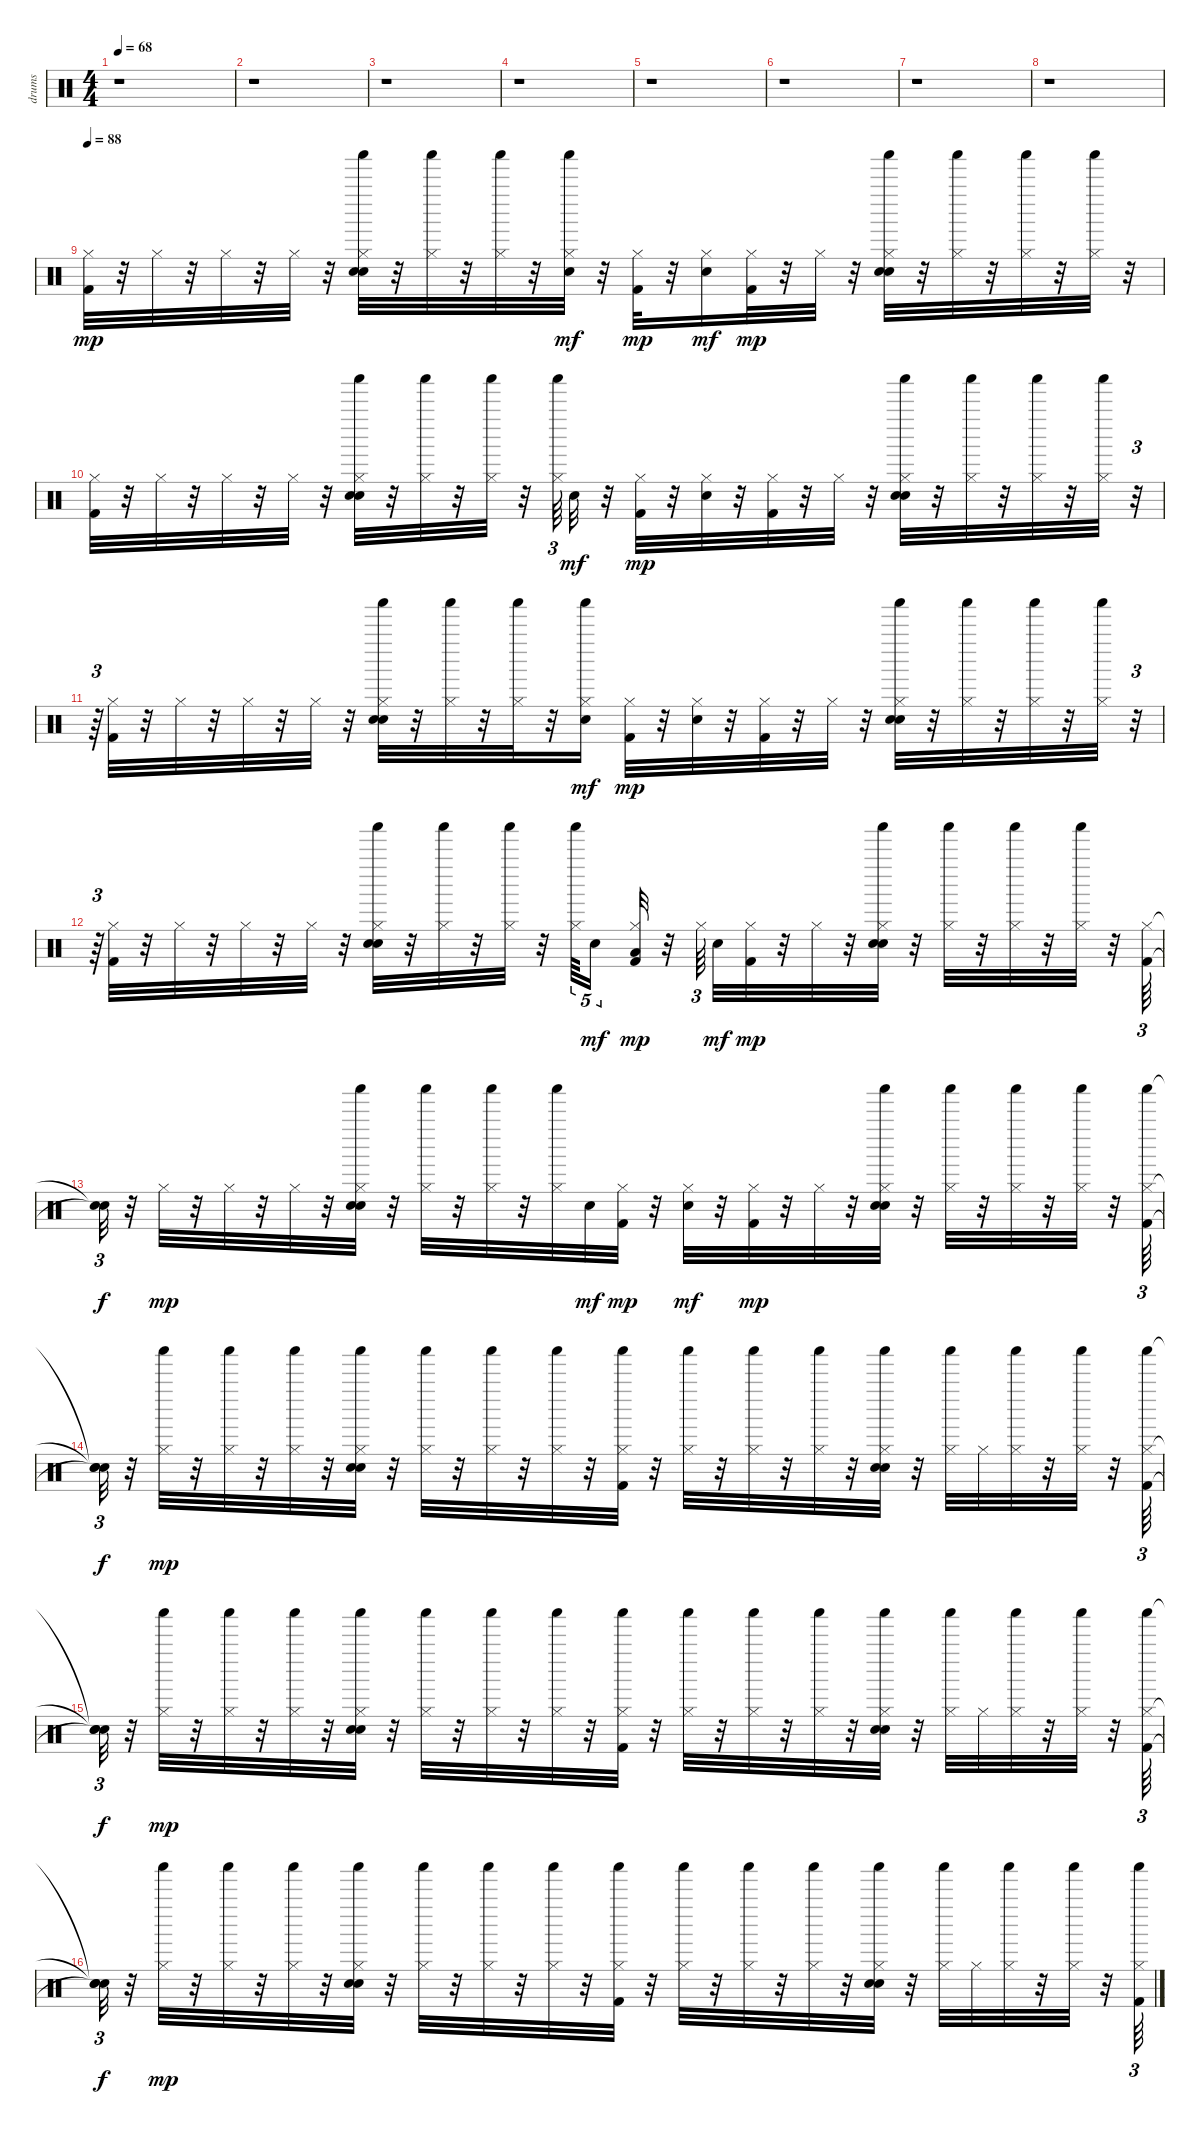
\track ("drums" "drums") {instrument percussion}
\staff {score}
\articulation defaults
\ts (4 4)
\tempo 68
\clef neutral
\ks c
r.1{dy mp} |
r.1 |
r.1 |
r.1 |
r.1 |
r.1 |
r.1 |
r.1 |
\tempo 88
("Kick (hit) 2" "Hi-Hat (closed)").32 r.32 "Hi-Hat (closed)".32 r.32 "Hi-Hat (closed)".32 r.32 "Hi-Hat (closed)".32 r.32 ("Shaker (hit)" "Hand Clap (hit)" "Snare (hit) 2" "Hi-Hat (closed)").32 r.32 ("Shaker (hit)" "Hi-Hat (closed)").32 r.32 ("Shaker (hit)" "Hi-Hat (closed)").32 r.32 ("Shaker (hit)" "Hi-Hat (closed)" "Electric Snare (hit)").32{dy mf} r.32 ("Kick (hit) 2" "Hi-Hat (closed)").32{dy mp} r.32 ("Hi-Hat (closed)" "Electric Snare (hit)").16{dy mf} ("Kick (hit) 2" "Hi-Hat (closed)").32{dy mp} r.32 "Hi-Hat (closed)".32 r.32 ("Shaker (hit)" "Hand Clap (hit)" "Snare (hit) 2" "Hi-Hat (closed)").32 r.32 ("Shaker (hit)" "Hi-Hat (closed)").32 r.32 ("Shaker (hit)" "Hi-Hat (closed)").32 r.32 ("Shaker (hit)" "Hi-Hat (closed)").32 r.32 |
("Kick (hit) 2" "Hi-Hat (closed)").32 r.32 "Hi-Hat (closed)".32 r.32 "Hi-Hat (closed)".32 r.32 "Hi-Hat (closed)".32 r.32 ("Shaker (hit)" "Hand Clap (hit)" "Snare (hit) 2" "Hi-Hat (closed)").32 r.32 ("Shaker (hit)" "Hi-Hat (closed)").32 r.32 ("Shaker (hit)" "Hi-Hat (closed)").32 r.32 ("Shaker (hit)" "Hi-Hat (closed)").64{tu (3 2)} "Electric Snare (hit)".32{dy mf} r.32 ("Kick (hit) 2" "Hi-Hat (closed)").32{dy mp} r.32 ("Electric Snare (hit)" "Hi-Hat (closed)").32 r.32 ("Kick (hit) 2" "Hi-Hat (closed)").32 r.32 "Hi-Hat (closed)".32 r.32 ("Shaker (hit)" "Hand Clap (hit)" "Snare (hit) 2" "Hi-Hat (closed)").32 r.32 ("Shaker (hit)" "Hi-Hat (closed)").32 r.32 ("Shaker (hit)" "Hi-Hat (closed)").32 r.32 ("Shaker (hit)" "Hi-Hat (closed)").32 r.32{tu (3 2)} |
r.64{tu (3 2)} ("Kick (hit) 2" "Hi-Hat (closed)").32 r.32 "Hi-Hat (closed)".32 r.32 "Hi-Hat (closed)".32 r.32 "Hi-Hat (closed)".32 r.32 ("Shaker (hit)" "Hand Clap (hit)" "Snare (hit) 2" "Hi-Hat (closed)").32 r.32 ("Shaker (hit)" "Hi-Hat (closed)").32 r.32 ("Shaker (hit)" "Hi-Hat (closed)").32 r.32 ("Shaker (hit)" "Hi-Hat (closed)" "Electric Snare (hit)").16{dy mf} ("Kick (hit) 2" "Hi-Hat (closed)").32{dy mp} r.32 ("Electric Snare (hit)" "Hi-Hat (closed)").32 r.32 ("Kick (hit) 2" "Hi-Hat (closed)").32 r.32 "Hi-Hat (closed)".32 r.32 ("Shaker (hit)" "Hand Clap (hit)" "Snare (hit) 2" "Hi-Hat (closed)").32 r.32 ("Shaker (hit)" "Hi-Hat (closed)").32 r.32 ("Shaker (hit)" "Hi-Hat (closed)").32 r.32 ("Shaker (hit)" "Hi-Hat (closed)").32 r.32{tu (3 2)} |
r.64{tu (3 2)} ("Kick (hit) 2" "Hi-Hat (closed)").32 r.32 "Hi-Hat (closed)".32 r.32 "Hi-Hat (closed)".32 r.32 "Hi-Hat (closed)".32 r.32 ("Shaker (hit)" "Hand Clap (hit)" "Snare (hit) 2" "Hi-Hat (closed)").32 r.32 ("Shaker (hit)" "Hi-Hat (closed)").32 r.32 ("Shaker (hit)" "Hi-Hat (closed)").32 r.32 ("Shaker (hit)" "Hi-Hat (closed)").64{tu (5 4)} "Electric Snare (hit)".16{tu (5 4) dy mf} ("Kick (hit) 2" "Hi-Hat (closed)" "Low Floor Tom (hit)").32{dy mp} r.32 "Hi-Hat (closed)".64{tu (3 2)} "Electric Snare (hit)".32{dy mf} ("Kick (hit) 2" "Hi-Hat (closed)").32{dy mp} r.32 "Hi-Hat (closed)".32 r.32 ("Shaker (hit)" "Hand Clap (hit)" "Snare (hit) 2" "Hi-Hat (closed)").32 r.32 ("Shaker (hit)" "Hi-Hat (closed)").32 r.32 ("Shaker (hit)" "Hi-Hat (closed)").32 r.32 ("Shaker (hit)" "Hi-Hat (closed)").32 r.32 ("Kick (hit) 2" "Hi-Hat (closed)").64{tu (3 2)} |
("Snare (hit)"{t} "Snare (hit)"{t}).32{tu (3 2) dy f} r.32 "Hi-Hat (closed)".32{dy mp} r.32 "Hi-Hat (closed)".32 r.32 "Hi-Hat (closed)".32 r.32 ("Shaker (hit)" "Hand Clap (hit)" "Snare (hit) 2" "Hi-Hat (closed)").32 r.32 ("Shaker (hit)" "Hi-Hat (closed)").32 r.32 ("Shaker (hit)" "Hi-Hat (closed)").32 r.32 ("Shaker (hit)" "Hi-Hat (closed)").32 "Electric Snare (hit)".32{dy mf} ("Kick (hit) 2" "Hi-Hat (closed)").32{dy mp} r.32 ("Hi-Hat (closed)" "Electric Snare (hit)").32{dy mf} r.32 ("Kick (hit) 2" "Hi-Hat (closed)").32{dy mp} r.32 "Hi-Hat (closed)".32 r.32 ("Shaker (hit)" "Hand Clap (hit)" "Snare (hit) 2" "Hi-Hat (closed)").32 r.32 ("Shaker (hit)" "Hi-Hat (closed)").32 r.32 ("Shaker (hit)" "Hi-Hat (closed)").32 r.32 ("Shaker (hit)" "Hi-Hat (closed)").32 r.32 ("Shaker (hit)" "Kick (hit) 2" "Hi-Hat (closed)").64{tu (3 2)} |
("Snare (hit)"{t} "Snare (hit)"{t} "Snare (hit)"{t}).32{tu (3 2) dy f} r.32 ("Shaker (hit)" "Hi-Hat (closed)").32{dy mp} r.32 ("Shaker (hit)" "Hi-Hat (closed)").32 r.32 ("Shaker (hit)" "Hi-Hat (closed)").32 r.32 ("Shaker (hit)" "Hand Clap (hit)" "Snare (hit) 2" "Hi-Hat (closed)").32 r.32 ("Shaker (hit)" "Hi-Hat (closed)").32 r.32 ("Shaker (hit)" "Hi-Hat (closed)").32 r.32 ("Shaker (hit)" "Hi-Hat (closed)").32 r.32 ("Shaker (hit)" "Kick (hit) 2" "Hi-Hat (closed)").32 r.32 ("Shaker (hit)" "Hi-Hat (closed)").32 r.32 ("Shaker (hit)" "Hi-Hat (closed)").32 r.32 ("Shaker (hit)" "Hi-Hat (closed)").32 r.32 ("Shaker (hit)" "Hand Clap (hit)" "Snare (hit) 2" "Hi-Hat (closed)").32 r.32 ("Shaker (hit)" "Hi-Hat (closed)").32 "Hi-Hat (closed)".32 ("Shaker (hit)" "Hi-Hat (closed)").32 r.32 ("Shaker (hit)" "Hi-Hat (closed)").32 r.32 ("Shaker (hit)" "Kick (hit) 2" "Hi-Hat (closed)").64{tu (3 2)} |
("Snare (hit)"{t} "Snare (hit)"{t} "Snare (hit)"{t}).32{tu (3 2) dy f} r.32 ("Shaker (hit)" "Hi-Hat (closed)").32{dy mp} r.32 ("Shaker (hit)" "Hi-Hat (closed)").32 r.32 ("Shaker (hit)" "Hi-Hat (closed)").32 r.32 ("Shaker (hit)" "Hand Clap (hit)" "Snare (hit) 2" "Hi-Hat (closed)").32 r.32 ("Shaker (hit)" "Hi-Hat (closed)").32 r.32 ("Shaker (hit)" "Hi-Hat (closed)").32 r.32 ("Shaker (hit)" "Hi-Hat (closed)").32 r.32 ("Shaker (hit)" "Kick (hit) 2" "Hi-Hat (closed)").32 r.32 ("Shaker (hit)" "Hi-Hat (closed)").32 r.32 ("Shaker (hit)" "Hi-Hat (closed)").32 r.32 ("Shaker (hit)" "Hi-Hat (closed)").32 r.32 ("Shaker (hit)" "Hand Clap (hit)" "Snare (hit) 2" "Hi-Hat (closed)").32 r.32 ("Shaker (hit)" "Hi-Hat (closed)").32 "Hi-Hat (closed)".32 ("Shaker (hit)" "Hi-Hat (closed)").32 r.32 ("Shaker (hit)" "Hi-Hat (closed)").32 r.32 ("Shaker (hit)" "Kick (hit) 2" "Hi-Hat (closed)").64{tu (3 2)} |
("Snare (hit)"{t} "Snare (hit)"{t} "Snare (hit)"{t}).32{tu (3 2) dy f} r.32 ("Shaker (hit)" "Hi-Hat (closed)").32{dy mp} r.32 ("Shaker (hit)" "Hi-Hat (closed)").32 r.32 ("Shaker (hit)" "Hi-Hat (closed)").32 r.32 ("Shaker (hit)" "Hand Clap (hit)" "Snare (hit) 2" "Hi-Hat (closed)").32 r.32 ("Shaker (hit)" "Hi-Hat (closed)").32 r.32 ("Shaker (hit)" "Hi-Hat (closed)").32 r.32 ("Shaker (hit)" "Hi-Hat (closed)").32 r.32 ("Shaker (hit)" "Kick (hit) 2" "Hi-Hat (closed)").32 r.32 ("Shaker (hit)" "Hi-Hat (closed)").32 r.32 ("Shaker (hit)" "Hi-Hat (closed)").32 r.32 ("Shaker (hit)" "Hi-Hat (closed)").32 r.32 ("Shaker (hit)" "Hand Clap (hit)" "Snare (hit) 2" "Hi-Hat (closed)").32 r.32 ("Shaker (hit)" "Hi-Hat (closed)").32 "Hi-Hat (closed)".32 ("Shaker (hit)" "Hi-Hat (closed)").32 r.32 ("Shaker (hit)" "Hi-Hat (closed)").32 r.32 ("Shaker (hit)" "Kick (hit) 2" "Hi-Hat (closed)").64{tu (3 2)}
